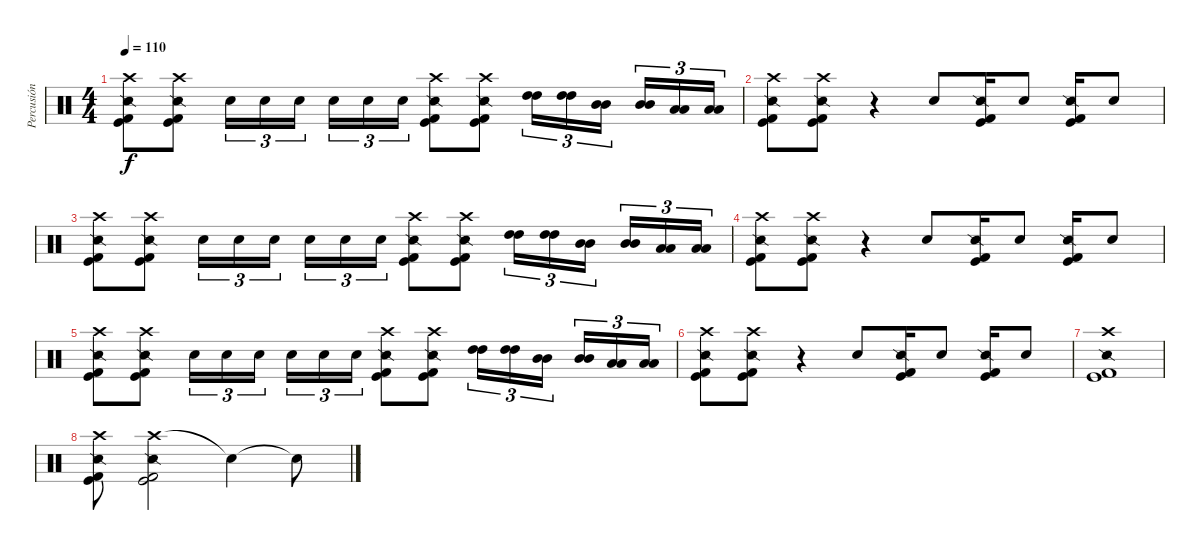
\track ("Percusión" "Percusión") {instrument percussion}
\staff {score}
\articulation defaults
\ts (4 4)
\tempo 110
\clef neutral
\ks c
("Crash high (hit)" "Snare (side stick) 2" "Kick (hit)" "Kick (hit) 2").8{dy f} ("Crash high (hit)" "Snare (side stick) 2" "Kick (hit)" "Kick (hit) 2").8 "Snare (hit) 2".16{tu (3 2)} "Snare (hit) 2".16{tu (3 2)} "Snare (hit) 2".16{tu (3 2)} "Snare (hit) 2".16{tu (3 2)} "Snare (hit) 2".16{tu (3 2)} "Snare (hit) 2".16{tu (3 2)} ("Crash high (hit)" "Snare (side stick) 2" "Kick (hit)" "Kick (hit) 2").8 ("Crash high (hit)" "Snare (side stick) 2" "Kick (hit)" "Kick (hit) 2").8 ("High Tom (hit)" "High Tom (hit)").16{tu (3 2)} ("High Tom (hit)" "High Tom (hit)").16{tu (3 2)} ("Mid Tom (hit)" "Mid Tom (hit)").16{tu (3 2)} ("Mid Tom (hit)" "Mid Tom (hit)").16{tu (3 2)} ("Low Tom (hit)" "Low Tom (hit)").16{tu (3 2)} ("Low Tom (hit)" "Low Tom (hit)").16{tu (3 2)} |
("Crash high (hit)" "Snare (side stick) 2" "Kick (hit)" "Kick (hit) 2").8 ("Crash high (hit)" "Snare (side stick) 2" "Kick (hit)" "Kick (hit) 2").8 r.4 "Snare (hit) 2".8 ("Snare (side stick) 2" "Kick (hit)" "Kick (hit) 2").16 "Snare (hit) 2".8 ("Snare (side stick) 2" "Kick (hit)" "Kick (hit) 2").16 "Snare (hit) 2".8 |
("Crash high (hit)" "Snare (side stick) 2" "Kick (hit)" "Kick (hit) 2").8 ("Crash high (hit)" "Snare (side stick) 2" "Kick (hit)" "Kick (hit) 2").8 "Snare (hit) 2".16{tu (3 2)} "Snare (hit) 2".16{tu (3 2)} "Snare (hit) 2".16{tu (3 2)} "Snare (hit) 2".16{tu (3 2)} "Snare (hit) 2".16{tu (3 2)} "Snare (hit) 2".16{tu (3 2)} ("Crash high (hit)" "Snare (side stick) 2" "Kick (hit)" "Kick (hit) 2").8 ("Crash high (hit)" "Snare (side stick) 2" "Kick (hit)" "Kick (hit) 2").8 ("High Tom (hit)" "High Tom (hit)").16{tu (3 2)} ("High Tom (hit)" "High Tom (hit)").16{tu (3 2)} ("Mid Tom (hit)" "Mid Tom (hit)").16{tu (3 2)} ("Mid Tom (hit)" "Mid Tom (hit)").16{tu (3 2)} ("Low Tom (hit)" "Low Tom (hit)").16{tu (3 2)} ("Low Tom (hit)" "Low Tom (hit)").16{tu (3 2)} |
("Crash high (hit)" "Snare (side stick) 2" "Kick (hit)" "Kick (hit) 2").8 ("Crash high (hit)" "Snare (side stick) 2" "Kick (hit)" "Kick (hit) 2").8 r.4 "Snare (hit) 2".8 ("Snare (side stick) 2" "Kick (hit)" "Kick (hit) 2").16 "Snare (hit) 2".8 ("Snare (side stick) 2" "Kick (hit)" "Kick (hit) 2").16 "Snare (hit) 2".8 |
("Crash high (hit)" "Snare (side stick) 2" "Kick (hit)" "Kick (hit) 2").8 ("Crash high (hit)" "Snare (side stick) 2" "Kick (hit)" "Kick (hit) 2").8 "Snare (hit) 2".16{tu (3 2)} "Snare (hit) 2".16{tu (3 2)} "Snare (hit) 2".16{tu (3 2)} "Snare (hit) 2".16{tu (3 2)} "Snare (hit) 2".16{tu (3 2)} "Snare (hit) 2".16{tu (3 2)} ("Crash high (hit)" "Snare (side stick) 2" "Kick (hit)" "Kick (hit) 2").8 ("Crash high (hit)" "Snare (side stick) 2" "Kick (hit)" "Kick (hit) 2").8 ("High Tom (hit)" "High Tom (hit)").16{tu (3 2)} ("High Tom (hit)" "High Tom (hit)").16{tu (3 2)} ("Mid Tom (hit)" "Mid Tom (hit)").16{tu (3 2)} ("Mid Tom (hit)" "Mid Tom (hit)").16{tu (3 2)} ("Low Tom (hit)" "Low Tom (hit)").16{tu (3 2)} ("Low Tom (hit)" "Low Tom (hit)").16{tu (3 2)} |
("Crash high (hit)" "Snare (side stick) 2" "Kick (hit)" "Kick (hit) 2").8 ("Crash high (hit)" "Snare (side stick) 2" "Kick (hit)" "Kick (hit) 2").8 r.4 "Snare (hit) 2".8 ("Snare (side stick) 2" "Kick (hit)" "Kick (hit) 2").16 "Snare (hit) 2".8 ("Snare (side stick) 2" "Kick (hit)" "Kick (hit) 2").16 "Snare (hit) 2".8 |
("Crash high (hit)" "Snare (side stick) 2" "Kick (hit)" "Kick (hit) 2").1 |
("Crash high (hit)" "Snare (side stick) 2" "Kick (hit)" "Kick (hit) 2").8 ("Crash high (hit)" "Snare (side stick) 2" "Kick (hit)" "Kick (hit) 2").2 "Snare (hit)"{t}.4 "Snare (hit)"{t}.8
